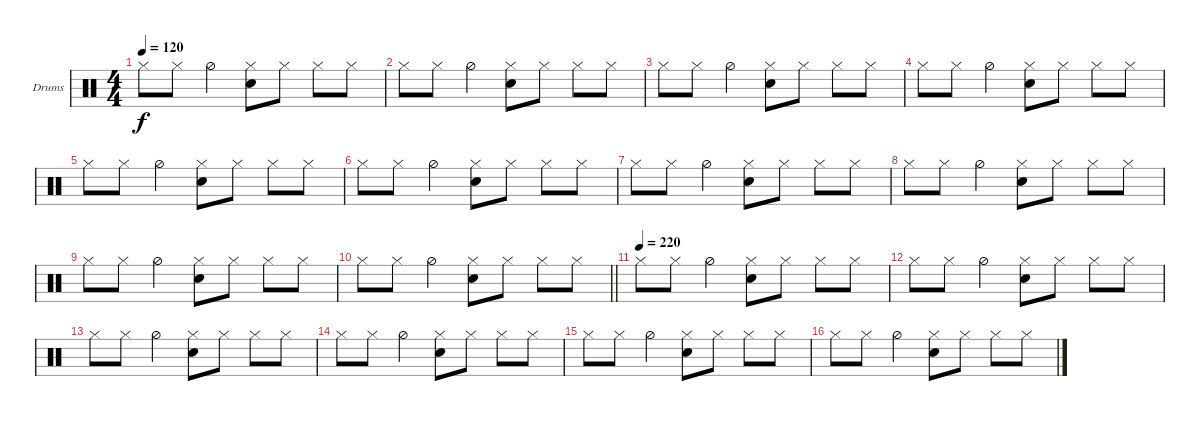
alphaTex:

\bracketExtendMode groupsimilarinstruments
\firstSystemTrackNameOrientation horizontal
\otherSystemsTrackNameOrientation horizontal
\track ("Drums" "Drums") {instrument percussion}
\staff {score}
\articulation defaults
\ts (4 4)
\beaming (8 2 2 2 2)
\tempo 120
\clef neutral
\scale
0.472222
\ks c "Hi-Hat (closed)".8{dy f} "Hi-Hat (closed)".8 "Hi-Hat (half)".4
("Hi-Hat (closed)" "Snare (hit) 2").8 "Hi-Hat (closed)".8 "Hi-Hat (closed)".8 "Hi-Hat (closed)".8 |
\scale
0.263889 "Hi-Hat (closed)".8 "Hi-Hat (closed)".8 "Hi-Hat (half)".4 ("Hi-Hat (closed)" "Snare (hit) 2").8 "Hi-Hat (closed)".8 "Hi-Hat (closed)".8 "Hi-Hat (closed)".8 |
\scale
0.263889 "Hi-Hat (closed)".8 "Hi-Hat (closed)".8 "Hi-Hat (half)".4 ("Hi-Hat (closed)" "Snare (hit) 2").8 "Hi-Hat (closed)".8 "Hi-Hat (closed)".8 "Hi-Hat (closed)".8 |
\scale
0.333333 "Hi-Hat (closed)".8 "Hi-Hat (closed)".8 "Hi-Hat (half)".4 ("Hi-Hat (closed)" "Snare (hit) 2").8 "Hi-Hat (closed)".8 "Hi-Hat (closed)".8 "Hi-Hat (closed)".8 |
\scale
0.333333 "Hi-Hat (closed)".8 "Hi-Hat (closed)".8 "Hi-Hat (half)".4 ("Hi-Hat (closed)" "Snare (hit) 2").8 "Hi-Hat (closed)".8 "Hi-Hat (closed)".8 "Hi-Hat (closed)".8 |
\scale
0.333333 "Hi-Hat (closed)".8 "Hi-Hat (closed)".8 "Hi-Hat (half)".4 ("Hi-Hat (closed)" "Snare (hit) 2").8 "Hi-Hat (closed)".8 "Hi-Hat (closed)".8 "Hi-Hat (closed)".8 |
\scale
0.333333 "Hi-Hat (closed)".8 "Hi-Hat (closed)".8 "Hi-Hat (half)".4 ("Hi-Hat (closed)" "Snare (hit) 2").8 "Hi-Hat (closed)".8 "Hi-Hat (closed)".8 "Hi-Hat (closed)".8 |
\scale
0.333333 "Hi-Hat (closed)".8 "Hi-Hat (closed)".8 "Hi-Hat (half)".4 ("Hi-Hat (closed)" "Snare (hit) 2").8 "Hi-Hat (closed)".8 "Hi-Hat (closed)".8 "Hi-Hat (closed)".8 |
\scale
0.333333 "Hi-Hat (closed)".8 "Hi-Hat (closed)".8 "Hi-Hat (half)".4 ("Hi-Hat (closed)" "Snare (hit) 2").8 "Hi-Hat (closed)".8 "Hi-Hat (closed)".8 "Hi-Hat (closed)".8 |
\scale
0.333333
\barLineRight lightlight "Hi-Hat (closed)".8 "Hi-Hat (closed)".8 "Hi-Hat (half)".4
("Hi-Hat (closed)" "Snare (hit) 2").8 "Hi-Hat (closed)".8 "Hi-Hat (closed)".8 "Hi-Hat (closed)".8 |
\tempo 220
\scale
0.333333 "Hi-Hat (closed)".8 "Hi-Hat (closed)".8 "Hi-Hat (half)".4 ("Hi-Hat (closed)" "Snare (hit) 2").8 "Hi-Hat (closed)".8 "Hi-Hat (closed)".8 "Hi-Hat (closed)".8 |
\scale
0.333333 "Hi-Hat (closed)".8 "Hi-Hat (closed)".8 "Hi-Hat (half)".4 ("Hi-Hat (closed)" "Snare (hit) 2").8 "Hi-Hat (closed)".8 "Hi-Hat (closed)".8 "Hi-Hat (closed)".8 |
\scale
0.333333 "Hi-Hat (closed)".8 "Hi-Hat (closed)".8 "Hi-Hat (half)".4 ("Hi-Hat (closed)" "Snare (hit) 2").8 "Hi-Hat (closed)".8 "Hi-Hat (closed)".8 "Hi-Hat (closed)".8 |
\scale
0.333333 "Hi-Hat (closed)".8 "Hi-Hat (closed)".8 "Hi-Hat (half)".4 ("Hi-Hat (closed)" "Snare (hit) 2").8 "Hi-Hat (closed)".8 "Hi-Hat (closed)".8 "Hi-Hat (closed)".8 |
\scale
0.333333 "Hi-Hat (closed)".8 "Hi-Hat (closed)".8 "Hi-Hat (half)".4 ("Hi-Hat (closed)" "Snare (hit) 2").8 "Hi-Hat (closed)".8 "Hi-Hat (closed)".8 "Hi-Hat (closed)".8 |
\scale
0.333333 "Hi-Hat (closed)".8 "Hi-Hat (closed)".8 "Hi-Hat (half)".4 ("Hi-Hat (closed)" "Snare (hit) 2").8 "Hi-Hat (closed)".8 "Hi-Hat (closed)".8 "Hi-Hat (closed)".8
